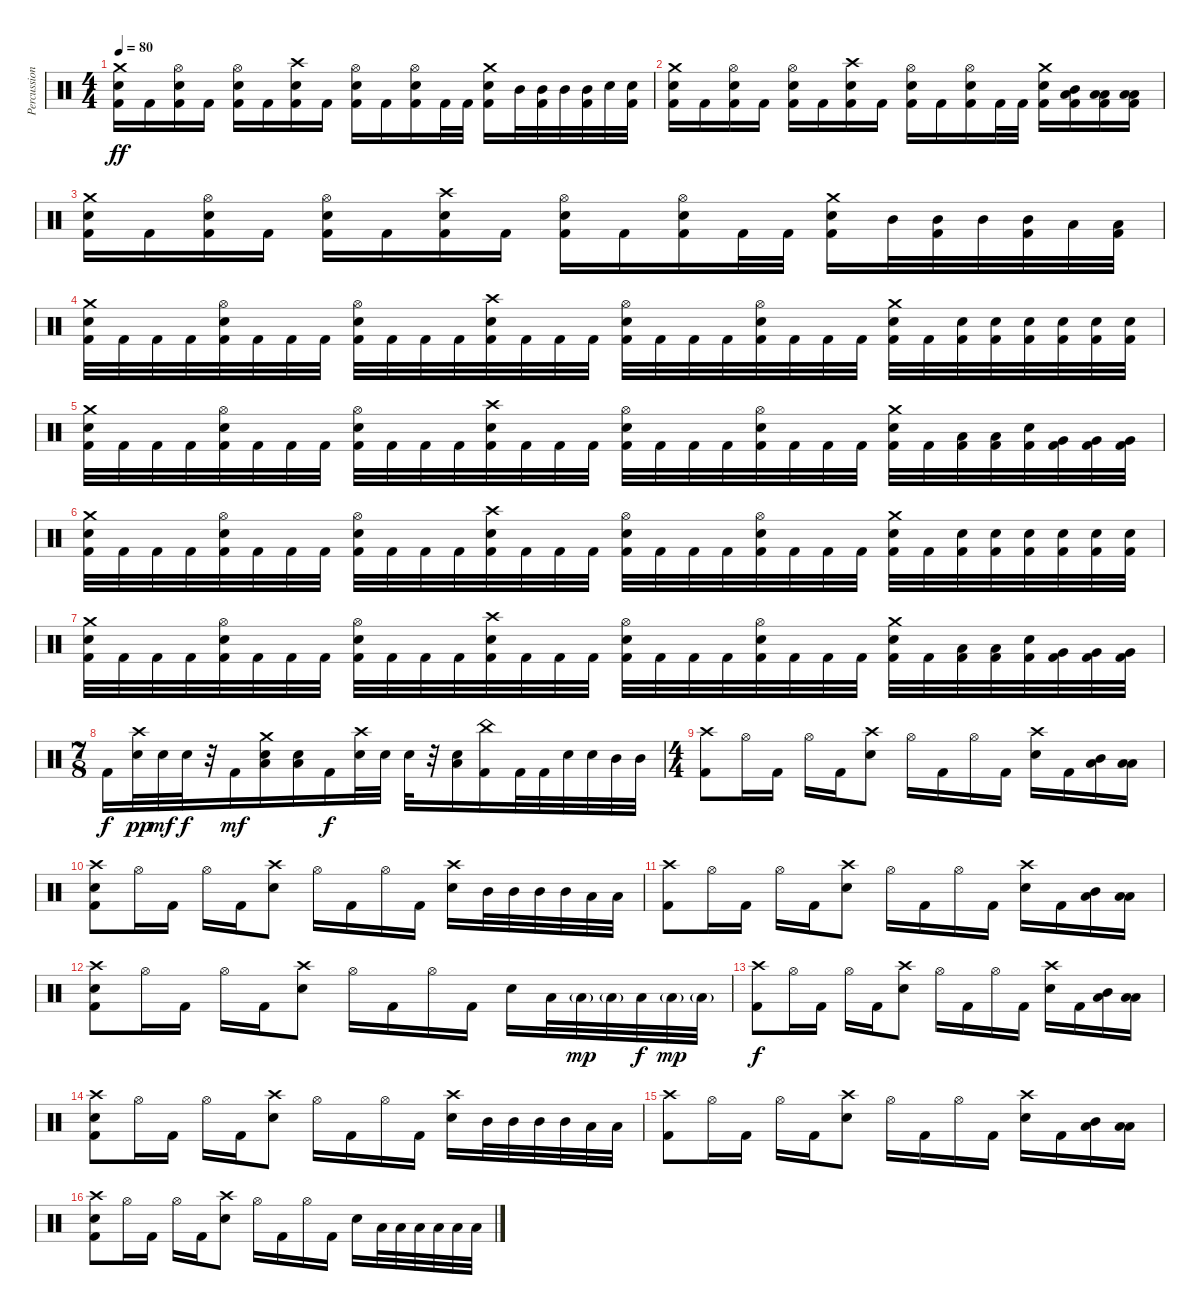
\track ("Percussion" "Percussion") {instrument percussion}
\staff {score}
\articulation defaults
\ts (4 4)
\tempo 80
\clef neutral
\ks c
("Crash medium (hit)" "Snare (hit) 2" "Kick (hit) 2").16{dy ff} "Kick (hit) 2".16 ("Hi-Hat (open)" "Snare (hit) 2" "Kick (hit) 2").16 "Kick (hit) 2".16 ("Hi-Hat (open)" "Snare (hit) 2" "Kick (hit) 2").16 "Kick (hit) 2".16 ("Crash high (hit)" "Snare (hit) 2" "Kick (hit) 2").16 "Kick (hit) 2".16 ("Hi-Hat (open)" "Snare (hit) 2" "Kick (hit) 2").16 "Kick (hit) 2".16 ("Hi-Hat (open)" "Snare (hit) 2" "Kick (hit) 2").16 "Kick (hit) 2".32 "Kick (hit) 2".32 ("Crash medium (hit)" "Snare (hit) 2" "Kick (hit) 2").16 "Mid Tom (hit)".32 ("Mid Tom (hit)" "Kick (hit) 2").32 "Mid Tom (hit)".32 ("Mid Tom (hit)" "Kick (hit) 2").32 "Snare (hit) 2".32 ("Snare (hit) 2" "Kick (hit) 2").32 |
("Crash medium (hit)" "Snare (hit) 2" "Kick (hit) 2").16 "Kick (hit) 2".16 ("Hi-Hat (open)" "Snare (hit) 2" "Kick (hit) 2").16 "Kick (hit) 2".16 ("Hi-Hat (open)" "Snare (hit) 2" "Kick (hit) 2").16 "Kick (hit) 2".16 ("Crash high (hit)" "Snare (hit) 2" "Kick (hit) 2").16 "Kick (hit) 2".16 ("Hi-Hat (open)" "Snare (hit) 2" "Kick (hit) 2").16 "Kick (hit) 2".16 ("Hi-Hat (open)" "Snare (hit) 2" "Kick (hit) 2").16 "Kick (hit) 2".32 "Kick (hit) 2".32 ("Crash medium (hit)" "Snare (hit) 2" "Kick (hit) 2").16 ("Mid Tom (hit)" "Low Tom (hit)" "Kick (hit) 2").16 ("Low Tom (hit)" "Low Floor Tom (hit)" "Kick (hit) 2").16 ("Low Tom (hit)" "Low Floor Tom (hit)" "Kick (hit) 2").16 |
("Crash medium (hit)" "Snare (hit) 2" "Kick (hit) 2").16 "Kick (hit) 2".16 ("Hi-Hat (open)" "Snare (hit) 2" "Kick (hit) 2").16 "Kick (hit) 2".16 ("Hi-Hat (open)" "Snare (hit) 2" "Kick (hit) 2").16 "Kick (hit) 2".16 ("Crash high (hit)" "Snare (hit) 2" "Kick (hit) 2").16 "Kick (hit) 2".16 ("Hi-Hat (open)" "Snare (hit) 2" "Kick (hit) 2").16 "Kick (hit) 2".16 ("Hi-Hat (open)" "Snare (hit) 2" "Kick (hit) 2").16 "Kick (hit) 2".32 "Kick (hit) 2".32 ("Crash medium (hit)" "Snare (hit) 2" "Kick (hit) 2").16 "Mid Tom (hit)".32 ("Mid Tom (hit)" "Kick (hit) 2").32 "Mid Tom (hit)".32 ("Mid Tom (hit)" "Kick (hit) 2").32 "Low Tom (hit)".32 ("Low Tom (hit)" "Kick (hit) 2").32 |
("Crash medium (hit)" "Snare (hit) 2" "Kick (hit) 2").32 "Kick (hit) 2".32 "Kick (hit) 2".32 "Kick (hit) 2".32 ("Hi-Hat (open)" "Snare (hit) 2" "Kick (hit) 2").32 "Kick (hit) 2".32 "Kick (hit) 2".32 "Kick (hit) 2".32 ("Hi-Hat (open)" "Snare (hit) 2" "Kick (hit) 2").32 "Kick (hit) 2".32 "Kick (hit) 2".32 "Kick (hit) 2".32 ("Crash high (hit)" "Snare (hit) 2" "Kick (hit) 2").32 "Kick (hit) 2".32 "Kick (hit) 2".32 "Kick (hit) 2".32 ("Hi-Hat (open)" "Snare (hit) 2" "Kick (hit) 2").32 "Kick (hit) 2".32 "Kick (hit) 2".32 "Kick (hit) 2".32 ("Hi-Hat (open)" "Snare (hit) 2" "Kick (hit) 2").32 "Kick (hit) 2".32 "Kick (hit) 2".32 "Kick (hit) 2".32 ("Crash medium (hit)" "Snare (hit) 2" "Kick (hit) 2").32 "Kick (hit) 2".32 ("Snare (hit) 2" "Kick (hit) 2").32 ("Snare (hit) 2" "Kick (hit) 2").32 ("Snare (hit) 2" "Kick (hit) 2").32 ("Snare (hit) 2" "Kick (hit) 2").32 ("Snare (hit) 2" "Kick (hit) 2").32 ("Snare (hit) 2" "Kick (hit) 2").32 |
("Crash medium (hit)" "Snare (hit) 2" "Kick (hit) 2").32 "Kick (hit) 2".32 "Kick (hit) 2".32 "Kick (hit) 2".32 ("Hi-Hat (open)" "Snare (hit) 2" "Kick (hit) 2").32 "Kick (hit) 2".32 "Kick (hit) 2".32 "Kick (hit) 2".32 ("Hi-Hat (open)" "Snare (hit) 2" "Kick (hit) 2").32 "Kick (hit) 2".32 "Kick (hit) 2".32 "Kick (hit) 2".32 ("Crash high (hit)" "Snare (hit) 2" "Kick (hit) 2").32 "Kick (hit) 2".32 "Kick (hit) 2".32 "Kick (hit) 2".32 ("Hi-Hat (open)" "Snare (hit) 2" "Kick (hit) 2").32 "Kick (hit) 2".32 "Kick (hit) 2".32 "Kick (hit) 2".32 ("Hi-Hat (open)" "Snare (hit) 2" "Kick (hit) 2").32 "Kick (hit) 2".32 "Kick (hit) 2".32 "Kick (hit) 2".32 ("Crash medium (hit)" "Snare (hit) 2" "Kick (hit) 2").32 "Kick (hit) 2".32 ("Low Tom (hit)" "Kick (hit) 2").32 ("Low Tom (hit)" "Kick (hit) 2").32 ("Snare (hit) 2" "Kick (hit) 2").32 ("Very Low Tom (hit)" "Kick (hit) 2").32 ("Very Low Tom (hit)" "Kick (hit) 2").32 ("Very Low Tom (hit)" "Kick (hit) 2").32 |
("Crash medium (hit)" "Snare (hit) 2" "Kick (hit) 2").32 "Kick (hit) 2".32 "Kick (hit) 2".32 "Kick (hit) 2".32 ("Hi-Hat (open)" "Snare (hit) 2" "Kick (hit) 2").32 "Kick (hit) 2".32 "Kick (hit) 2".32 "Kick (hit) 2".32 ("Hi-Hat (open)" "Snare (hit) 2" "Kick (hit) 2").32 "Kick (hit) 2".32 "Kick (hit) 2".32 "Kick (hit) 2".32 ("Crash high (hit)" "Snare (hit) 2" "Kick (hit) 2").32 "Kick (hit) 2".32 "Kick (hit) 2".32 "Kick (hit) 2".32 ("Hi-Hat (open)" "Snare (hit) 2" "Kick (hit) 2").32 "Kick (hit) 2".32 "Kick (hit) 2".32 "Kick (hit) 2".32 ("Hi-Hat (open)" "Snare (hit) 2" "Kick (hit) 2").32 "Kick (hit) 2".32 "Kick (hit) 2".32 "Kick (hit) 2".32 ("Crash medium (hit)" "Snare (hit) 2" "Kick (hit) 2").32 "Kick (hit) 2".32 ("Snare (hit) 2" "Kick (hit) 2").32 ("Snare (hit) 2" "Kick (hit) 2").32 ("Snare (hit) 2" "Kick (hit) 2").32 ("Snare (hit) 2" "Kick (hit) 2").32 ("Snare (hit) 2" "Kick (hit) 2").32 ("Snare (hit) 2" "Kick (hit) 2").32 |
("Crash medium (hit)" "Snare (hit) 2" "Kick (hit) 2").32 "Kick (hit) 2".32 "Kick (hit) 2".32 "Kick (hit) 2".32 ("Hi-Hat (open)" "Snare (hit) 2" "Kick (hit) 2").32 "Kick (hit) 2".32 "Kick (hit) 2".32 "Kick (hit) 2".32 ("Hi-Hat (open)" "Snare (hit) 2" "Kick (hit) 2").32 "Kick (hit) 2".32 "Kick (hit) 2".32 "Kick (hit) 2".32 ("Crash high (hit)" "Snare (hit) 2" "Kick (hit) 2").32 "Kick (hit) 2".32 "Kick (hit) 2".32 "Kick (hit) 2".32 ("Hi-Hat (open)" "Snare (hit) 2" "Kick (hit) 2").32 "Kick (hit) 2".32 "Kick (hit) 2".32 "Kick (hit) 2".32 ("Hi-Hat (open)" "Snare (hit) 2" "Kick (hit) 2").32 "Kick (hit) 2".32 "Kick (hit) 2".32 "Kick (hit) 2".32 ("Crash medium (hit)" "Snare (hit) 2" "Kick (hit) 2").32 "Kick (hit) 2".32 ("Low Tom (hit)" "Kick (hit) 2").32 ("Low Tom (hit)" "Kick (hit) 2").32 ("Snare (hit) 2" "Kick (hit) 2").32 ("Very Low Tom (hit)" "Kick (hit) 2").32 ("Very Low Tom (hit)" "Kick (hit) 2").32 ("Very Low Tom (hit)" "Kick (hit) 2").32 |
\ts (7 8)
"Kick (hit) 2".16{dy f} ("Crash high (hit)" "Snare (hit) 2").32{dy pp} "Snare (hit) 2".32{dy mf} "Snare (hit) 2".32{dy f} r.32 "Kick (hit) 2".16{dy mf} ("Crash medium (hit)" "Low Floor Tom (hit)" "Snare (hit) 2").16 ("Low Floor Tom (hit)" "Snare (hit) 2").16 "Kick (hit) 2".16{dy f} ("Crash high (hit)" "Snare (hit) 2").32 "Snare (hit) 2".32 "Snare (hit) 2".32 r.32 ("Low Floor Tom (hit)" "Snare (hit) 2").16 ("China (hit)" "Kick (hit) 2").16 "Kick (hit) 2".32 "Kick (hit) 2".32 "Snare (hit) 2".32 "Snare (hit) 2".32 "Mid Tom (hit)".32 "Mid Tom (hit)".32 |
\ts (4 4)
("Crash high (hit)" "Kick (hit) 2").8 "Hi-Hat (open)".16 "Kick (hit) 2".16 "Hi-Hat (open)".16 "Kick (hit) 2".16 ("Crash high (hit)" "Snare (hit) 2").8 "Hi-Hat (open)".16 "Kick (hit) 2".16 "Hi-Hat (open)".16 "Kick (hit) 2".16 ("Crash high (hit)" "Snare (hit) 2").16 "Kick (hit) 2".16 ("Mid Tom (hit)" "Low Tom (hit)").16 ("Low Floor Tom (hit)" "Low Floor Tom (hit)").16 |
("Crash high (hit)" "Snare (hit) 2" "Kick (hit) 2").8 "Hi-Hat (open)".16 "Kick (hit) 2".16 "Hi-Hat (open)".16 "Kick (hit) 2".16 ("Crash high (hit)" "Snare (hit) 2").8 "Hi-Hat (open)".16 "Kick (hit) 2".16 "Hi-Hat (open)".16 "Kick (hit) 2".16 ("Crash high (hit)" "Snare (hit) 2").16 "Mid Tom (hit)".32 "Mid Tom (hit)".32 "Mid Tom (hit)".32 "Mid Tom (hit)".32 "Low Tom (hit)".32 "Low Tom (hit)".32 |
("Crash high (hit)" "Kick (hit) 2").8 "Hi-Hat (open)".16 "Kick (hit) 2".16 "Hi-Hat (open)".16 "Kick (hit) 2".16 ("Crash high (hit)" "Snare (hit) 2").8 "Hi-Hat (open)".16 "Kick (hit) 2".16 "Hi-Hat (open)".16 "Kick (hit) 2".16 ("Crash high (hit)" "Snare (hit) 2").16 "Kick (hit) 2".16 ("Mid Tom (hit)" "Low Tom (hit)").16 ("Low Floor Tom (hit)" "Low Floor Tom (hit)").16 |
("Crash high (hit)" "Snare (hit) 2" "Kick (hit) 2").8 "Hi-Hat (open)".16 "Kick (hit) 2".16 "Hi-Hat (open)".16 "Kick (hit) 2".16 ("Crash high (hit)" "Snare (hit) 2").8 "Hi-Hat (open)".16 "Kick (hit) 2".16 "Hi-Hat (open)".16 "Kick (hit) 2".16 "Snare (hit) 2".16 "Low Floor Tom (hit)".32 "Low Floor Tom (hit)"{g}.32{dy mp} "Low Floor Tom (hit)"{g}.32 "Low Floor Tom (hit)".32{dy f} "Low Floor Tom (hit)"{g}.32{dy mp} "Low Floor Tom (hit)"{g}.32 |
("Crash high (hit)" "Kick (hit) 2").8{dy f} "Hi-Hat (open)".16 "Kick (hit) 2".16 "Hi-Hat (open)".16 "Kick (hit) 2".16 ("Crash high (hit)" "Snare (hit) 2").8 "Hi-Hat (open)".16 "Kick (hit) 2".16 "Hi-Hat (open)".16 "Kick (hit) 2".16 ("Crash high (hit)" "Snare (hit) 2").16 "Kick (hit) 2".16 ("Mid Tom (hit)" "Low Tom (hit)").16 ("Low Floor Tom (hit)" "Low Floor Tom (hit)").16 |
("Crash high (hit)" "Snare (hit) 2" "Kick (hit) 2").8 "Hi-Hat (open)".16 "Kick (hit) 2".16 "Hi-Hat (open)".16 "Kick (hit) 2".16 ("Crash high (hit)" "Snare (hit) 2").8 "Hi-Hat (open)".16 "Kick (hit) 2".16 "Hi-Hat (open)".16 "Kick (hit) 2".16 ("Crash high (hit)" "Snare (hit) 2").16 "Mid Tom (hit)".32 "Mid Tom (hit)".32 "Mid Tom (hit)".32 "Mid Tom (hit)".32 "Low Tom (hit)".32 "Low Tom (hit)".32 |
("Crash high (hit)" "Kick (hit) 2").8 "Hi-Hat (open)".16 "Kick (hit) 2".16 "Hi-Hat (open)".16 "Kick (hit) 2".16 ("Crash high (hit)" "Snare (hit) 2").8 "Hi-Hat (open)".16 "Kick (hit) 2".16 "Hi-Hat (open)".16 "Kick (hit) 2".16 ("Crash high (hit)" "Snare (hit) 2").16 "Kick (hit) 2".16 ("Mid Tom (hit)" "Low Tom (hit)").16 ("Low Floor Tom (hit)" "Low Floor Tom (hit)").16 |
("Crash high (hit)" "Snare (hit) 2" "Kick (hit) 2").8 "Hi-Hat (open)".16 "Kick (hit) 2".16 "Hi-Hat (open)".16 "Kick (hit) 2".16 ("Crash high (hit)" "Snare (hit) 2").8 "Hi-Hat (open)".16 "Kick (hit) 2".16 "Hi-Hat (open)".16 "Kick (hit) 2".16 "Snare (hit) 2".16 "Low Floor Tom (hit)".32 "Low Floor Tom (hit)".32 "Low Floor Tom (hit)".32 "Low Floor Tom (hit)".32 "Low Floor Tom (hit)".32 "Low Floor Tom (hit)".32
